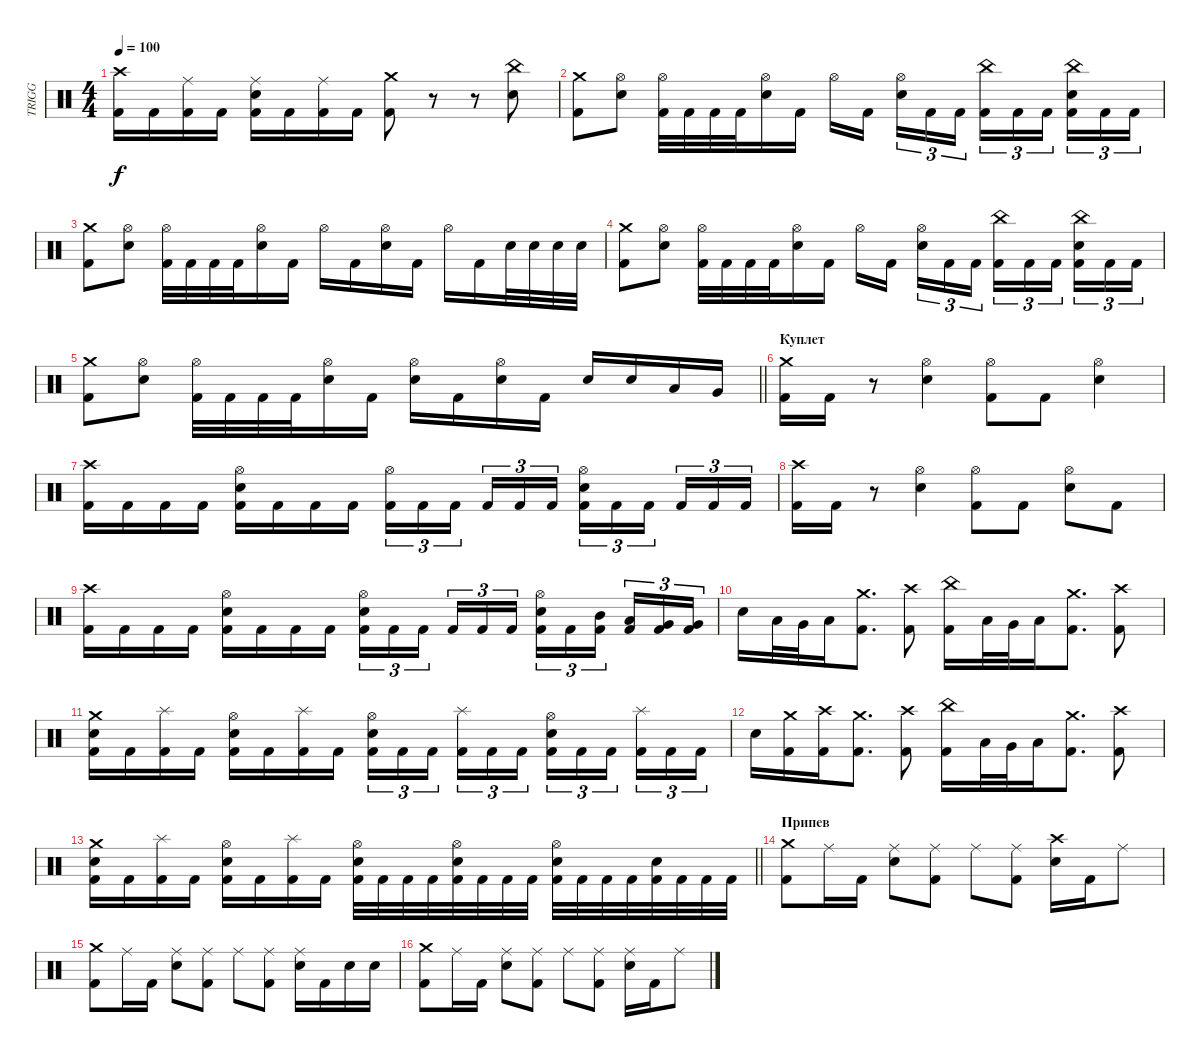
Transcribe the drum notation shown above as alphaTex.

\track ("TRIGG" "TRIGG") {instrument percussion}
\staff {score}
\articulation defaults
\ts (4 4)
\tempo 100
\clef neutral
\ks c
("Crash high (hit)" "Kick (hit) 2").16{dy f} "Kick (hit) 2".16 ("Ride (middle)" "Kick (hit) 2").16 "Kick (hit) 2".16 ("Ride (middle)" "Electric Snare (hit)" "Kick (hit) 2").16 "Kick (hit) 2".16 ("Ride (middle)" "Kick (hit) 2").16 "Kick (hit) 2".16 ("Crash medium (hit)" "Kick (hit) 2").8 r.8 r.8 ("Electric Snare (hit)" "China (hit)").8 |
("Crash medium (hit)" "Kick (hit) 2").8 ("Hi-Hat (open)" "Electric Snare (hit)").8 ("Hi-Hat (open)" "Kick (hit) 2").32 "Kick (hit) 2".32 "Kick (hit) 2".32 "Kick (hit) 2".32 ("Hi-Hat (open)" "Electric Snare (hit)").16 "Kick (hit) 2".16 "Hi-Hat (open)".16 "Kick (hit) 2".16{beam splitsecondary} ("Hi-Hat (open)" "Electric Snare (hit)").16{tu (3 2)} "Kick (hit) 2".16{tu (3 2)} "Kick (hit) 2".16{tu (3 2)} ("China (hit)" "Kick (hit) 2").16{tu (3 2)} "Kick (hit) 2".16{tu (3 2)} "Kick (hit) 2".16{tu (3 2) beam splitsecondary} ("China (hit)" "Electric Snare (hit)" "Kick (hit) 2").16{tu (3 2)} "Kick (hit) 2".16{tu (3 2)} "Kick (hit) 2".16{tu (3 2)} |
("Crash medium (hit)" "Kick (hit) 2").8 ("Hi-Hat (open)" "Electric Snare (hit)").8 ("Hi-Hat (open)" "Kick (hit) 2").32 "Kick (hit) 2".32 "Kick (hit) 2".32 "Kick (hit) 2".32 ("Hi-Hat (open)" "Electric Snare (hit)").16 "Kick (hit) 2".16 "Hi-Hat (open)".16 "Kick (hit) 2".16 ("Hi-Hat (open)" "Electric Snare (hit)").16 "Kick (hit) 2".16 "Hi-Hat (open)".16 "Kick (hit) 2".16 "Electric Snare (hit)".32 "Electric Snare (hit)".32 "Electric Snare (hit)".32 "Electric Snare (hit)".32 |
("Crash medium (hit)" "Kick (hit) 2").8 ("Hi-Hat (open)" "Electric Snare (hit)").8 ("Hi-Hat (open)" "Kick (hit) 2").32 "Kick (hit) 2".32 "Kick (hit) 2".32 "Kick (hit) 2".32 ("Hi-Hat (open)" "Electric Snare (hit)").16 "Kick (hit) 2".16 "Hi-Hat (open)".16 "Kick (hit) 2".16{beam splitsecondary} ("Hi-Hat (open)" "Electric Snare (hit)").16{tu (3 2)} "Kick (hit) 2".16{tu (3 2)} "Kick (hit) 2".16{tu (3 2)} ("China (hit)" "Kick (hit) 2").16{tu (3 2)} "Kick (hit) 2".16{tu (3 2)} "Kick (hit) 2".16{tu (3 2) beam splitsecondary} ("China (hit)" "Electric Snare (hit)" "Kick (hit) 2").16{tu (3 2)} "Kick (hit) 2".16{tu (3 2)} "Kick (hit) 2".16{tu (3 2)} |
\barLineRight lightlight
("Crash medium (hit)" "Kick (hit) 2").8 ("Hi-Hat (open)" "Electric Snare (hit)").8 ("Hi-Hat (open)" "Kick (hit) 2").32 "Kick (hit) 2".32 "Kick (hit) 2".32 "Kick (hit) 2".32 ("Hi-Hat (open)" "Electric Snare (hit)").16 "Kick (hit) 2".16 ("Hi-Hat (open)" "Electric Snare (hit)").16 "Kick (hit) 2".16 ("Hi-Hat (open)" "Electric Snare (hit)").16 "Kick (hit) 2".16 "Electric Snare (hit)".16 "Electric Snare (hit)".16 "Low Tom (hit)".16 "Very Low Tom (hit)".16 |
\section ("" "Куплет")
("Crash medium (hit)" "Kick (hit) 2").16 "Kick (hit) 2".16 r.8 ("Hi-Hat (open)" "Electric Snare (hit)").4 ("Hi-Hat (open)" "Kick (hit) 2").8 "Kick (hit) 2".8 ("Hi-Hat (open)" "Electric Snare (hit)").4 |
("Crash high (hit)" "Kick (hit) 2").16 "Kick (hit) 2".16 "Kick (hit) 2".16 "Kick (hit) 2".16 ("Hi-Hat (open)" "Electric Snare (hit)" "Kick (hit) 2").16 "Kick (hit) 2".16 "Kick (hit) 2".16 "Kick (hit) 2".16 ("Hi-Hat (open)" "Kick (hit) 2").16{tu (3 2)} "Kick (hit) 2".16{tu (3 2)} "Kick (hit) 2".16{tu (3 2) beam splitsecondary} "Kick (hit) 2".16{tu (3 2)} "Kick (hit) 2".16{tu (3 2)} "Kick (hit) 2".16{tu (3 2)} ("Hi-Hat (open)" "Electric Snare (hit)" "Kick (hit) 2").16{tu (3 2)} "Kick (hit) 2".16{tu (3 2)} "Kick (hit) 2".16{tu (3 2) beam splitsecondary} "Kick (hit) 2".16{tu (3 2)} "Kick (hit) 2".16{tu (3 2)} "Kick (hit) 2".16{tu (3 2)} |
("Crash high (hit)" "Kick (hit) 2").16 "Kick (hit) 2".16 r.8 ("Hi-Hat (open)" "Electric Snare (hit)").4 ("Hi-Hat (open)" "Kick (hit) 2").8 "Kick (hit) 2".8 ("Hi-Hat (open)" "Electric Snare (hit)").8 "Kick (hit) 2".8 |
("Crash high (hit)" "Kick (hit) 2").16 "Kick (hit) 2".16 "Kick (hit) 2".16 "Kick (hit) 2".16 ("Hi-Hat (open)" "Electric Snare (hit)" "Kick (hit) 2").16 "Kick (hit) 2".16 "Kick (hit) 2".16 "Kick (hit) 2".16 ("Hi-Hat (open)" "Electric Snare (hit)" "Kick (hit) 2").16{tu (3 2)} "Kick (hit) 2".16{tu (3 2)} "Kick (hit) 2".16{tu (3 2) beam splitsecondary} "Kick (hit) 2".16{tu (3 2)} "Kick (hit) 2".16{tu (3 2)} "Kick (hit) 2".16{tu (3 2)} ("Hi-Hat (open)" "Electric Snare (hit)" "Kick (hit) 2").16{tu (3 2)} "Kick (hit) 2".16{tu (3 2)} ("Mid Tom (hit)" "Kick (hit) 2").16{tu (3 2) beam splitsecondary} ("Low Tom (hit)" "Kick (hit) 2").16{tu (3 2)} ("Very Low Tom (hit)" "Kick (hit) 2").16{tu (3 2)} ("Very Low Tom (hit)" "Kick (hit) 2").16{tu (3 2)} |
"Electric Snare (hit)".16 "Low Tom (hit)".32 "Very Low Tom (hit)".32 "Low Floor Tom (hit)".16 ("Crash medium (hit)" "Kick (hit) 2").8{d} ("Crash high (hit)" "Kick (hit) 2").8 ("China (hit)" "Kick (hit) 2").16 "Low Tom (hit)".32 "Very Low Tom (hit)".32 "Low Floor Tom (hit)".16 ("Crash medium (hit)" "Kick (hit) 2").8{d} ("Crash high (hit)" "Kick (hit) 2").8 |
("Crash medium (hit)" "Electric Snare (hit)" "Kick (hit) 2").16 "Kick (hit) 2".16 ("Splash (hit)" "Kick (hit) 2").16 "Kick (hit) 2".16 ("Hi-Hat (open)" "Electric Snare (hit)" "Kick (hit) 2").16 "Kick (hit) 2".16 ("Splash (hit)" "Kick (hit) 2").16 "Kick (hit) 2".16 ("Hi-Hat (open)" "Electric Snare (hit)" "Kick (hit) 2").16{tu (3 2)} "Kick (hit) 2".16{tu (3 2)} "Kick (hit) 2".16{tu (3 2) beam splitsecondary} ("Splash (hit)" "Kick (hit) 2").16{tu (3 2)} "Kick (hit) 2".16{tu (3 2)} "Kick (hit) 2".16{tu (3 2)} ("Hi-Hat (open)" "Electric Snare (hit)" "Kick (hit) 2").16{tu (3 2)} "Kick (hit) 2".16{tu (3 2)} "Kick (hit) 2".16{tu (3 2) beam splitsecondary} ("Splash (hit)" "Kick (hit) 2").16{tu (3 2)} "Kick (hit) 2".16{tu (3 2)} "Kick (hit) 2".16{tu (3 2)} |
"Electric Snare (hit)".16 ("Crash medium (hit)" "Kick (hit) 2").16 ("Crash high (hit)" "Kick (hit) 2").16 ("Crash medium (hit)" "Kick (hit) 2").8{d} ("Crash high (hit)" "Kick (hit) 2").8 ("China (hit)" "Kick (hit) 2").16 "Low Tom (hit)".32 "Very Low Tom (hit)".32 "Low Floor Tom (hit)".16 ("Crash medium (hit)" "Kick (hit) 2").8{d} ("Crash high (hit)" "Kick (hit) 2").8 |
\barLineRight lightlight
("Crash medium (hit)" "Electric Snare (hit)" "Kick (hit) 2").16 "Kick (hit) 2".16 ("Splash (hit)" "Kick (hit) 2").16 "Kick (hit) 2".16 ("Hi-Hat (open)" "Electric Snare (hit)" "Kick (hit) 2").16 "Kick (hit) 2".16 ("Splash (hit)" "Kick (hit) 2").16 "Kick (hit) 2".16 ("Hi-Hat (open)" "Electric Snare (hit)" "Kick (hit) 2").32 "Kick (hit) 2".32 "Kick (hit) 2".32 "Kick (hit) 2".32 ("Hi-Hat (open)" "Electric Snare (hit)" "Kick (hit) 2").32 "Kick (hit) 2".32 "Kick (hit) 2".32 "Kick (hit) 2".32 ("Hi-Hat (open)" "Electric Snare (hit)" "Kick (hit) 2").32 "Kick (hit) 2".32 "Kick (hit) 2".32 "Kick (hit) 2".32 ("Electric Snare (hit)" "Kick (hit) 2").32 "Kick (hit) 2".32 "Kick (hit) 2".32 "Kick (hit) 2".32 |
\section ("" "Припев")
("Crash medium (hit)" "Kick (hit) 2").8 "Ride (middle)".16 "Kick (hit) 2".16 ("Ride (middle)" "Electric Snare (hit)").8 ("Ride (middle)" "Kick (hit) 2").8 "Ride (middle)".8 ("Ride (middle)" "Kick (hit) 2").8 ("Crash high (hit)" "Electric Snare (hit)").16 "Kick (hit) 2".16 "Ride (middle)".8 |
("Crash medium (hit)" "Kick (hit) 2").8 "Ride (middle)".16 "Kick (hit) 2".16 ("Ride (middle)" "Electric Snare (hit)").8 ("Ride (middle)" "Kick (hit) 2").8 "Ride (middle)".8 ("Ride (middle)" "Kick (hit) 2").8 ("Ride (middle)" "Electric Snare (hit)").16 "Kick (hit) 2".16 "Electric Snare (hit)".16 "Electric Snare (hit)".16 |
("Crash medium (hit)" "Kick (hit) 2").8 "Ride (middle)".16 "Kick (hit) 2".16 ("Ride (middle)" "Electric Snare (hit)").8 ("Ride (middle)" "Kick (hit) 2").8 "Ride (middle)".8 ("Ride (middle)" "Kick (hit) 2").8 ("Ride (middle)" "Electric Snare (hit)").16 "Kick (hit) 2".16 "Ride (middle)".8
